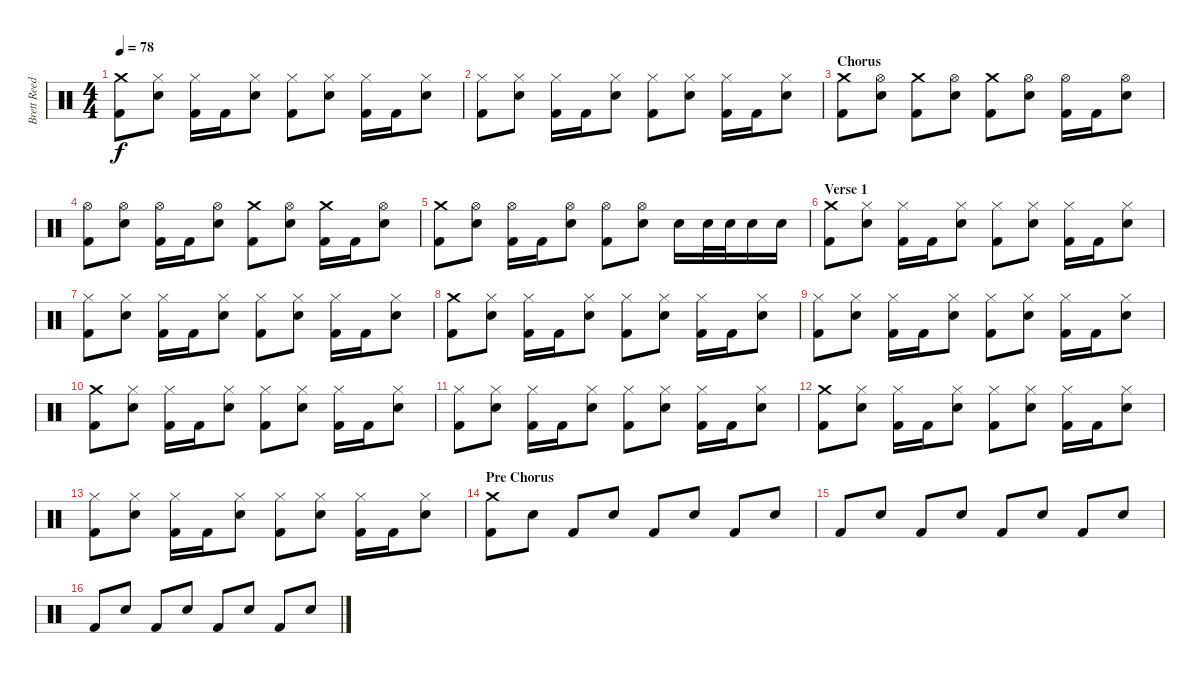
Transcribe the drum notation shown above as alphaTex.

\track ("Brett Reed" "Brett Reed") {instrument percussion}
\staff {score}
\articulation defaults
\ts (4 4)
\tempo 78
\clef neutral
\ks c
("Crash medium (hit)" "Kick (hit) 2").8{dy f} ("Hi-Hat (closed)" "Electric Snare (hit)").8 ("Hi-Hat (closed)" "Kick (hit) 2").16 "Kick (hit) 2".16 ("Hi-Hat (closed)" "Electric Snare (hit)").8 ("Hi-Hat (closed)" "Kick (hit) 2").8 ("Hi-Hat (closed)" "Electric Snare (hit)").8 ("Hi-Hat (closed)" "Kick (hit) 2").16 "Kick (hit) 2".16 ("Hi-Hat (closed)" "Electric Snare (hit)").8 |
("Hi-Hat (closed)" "Kick (hit) 2").8 ("Hi-Hat (closed)" "Electric Snare (hit)").8 ("Hi-Hat (closed)" "Kick (hit) 2").16 "Kick (hit) 2".16 ("Hi-Hat (closed)" "Electric Snare (hit)").8 ("Hi-Hat (closed)" "Kick (hit) 2").8 ("Hi-Hat (closed)" "Electric Snare (hit)").8 ("Hi-Hat (closed)" "Kick (hit) 2").16 "Kick (hit) 2".16 ("Hi-Hat (closed)" "Electric Snare (hit)").8 |
\section ("" "Chorus")
("Crash medium (hit)" "Kick (hit) 2").8 ("Hi-Hat (open)" "Electric Snare (hit)").8 ("Crash medium (hit)" "Kick (hit) 2").8 ("Hi-Hat (open)" "Electric Snare (hit)").8 ("Crash medium (hit)" "Kick (hit) 2").8 ("Hi-Hat (open)" "Electric Snare (hit)").8 ("Hi-Hat (open)" "Kick (hit) 2").16 "Kick (hit) 2".16 ("Hi-Hat (open)" "Electric Snare (hit)").8 |
("Hi-Hat (open)" "Kick (hit) 2").8 ("Hi-Hat (open)" "Electric Snare (hit)").8 ("Hi-Hat (open)" "Kick (hit) 2").16 "Kick (hit) 2".16 ("Hi-Hat (open)" "Electric Snare (hit)").8 ("Crash medium (hit)" "Kick (hit) 2").8 ("Hi-Hat (open)" "Electric Snare (hit)").8 ("Crash medium (hit)" "Kick (hit) 2").16 "Kick (hit) 2".16 ("Hi-Hat (open)" "Electric Snare (hit)").8 |
("Crash medium (hit)" "Kick (hit) 2").8 ("Hi-Hat (open)" "Electric Snare (hit)").8 ("Hi-Hat (open)" "Kick (hit) 2").16 "Kick (hit) 2".16 ("Hi-Hat (open)" "Electric Snare (hit)").8 ("Hi-Hat (open)" "Kick (hit) 2").8 ("Hi-Hat (open)" "Electric Snare (hit)").8 "Electric Snare (hit)".16 "Electric Snare (hit)".32 "Electric Snare (hit)".32 "Electric Snare (hit)".16 "Electric Snare (hit)".16 |
\section ("" "Verse 1")
("Crash medium (hit)" "Kick (hit) 2").8 ("Hi-Hat (closed)" "Electric Snare (hit)").8 ("Hi-Hat (closed)" "Kick (hit) 2").16 "Kick (hit) 2".16 ("Hi-Hat (closed)" "Electric Snare (hit)").8 ("Hi-Hat (closed)" "Kick (hit) 2").8 ("Hi-Hat (closed)" "Electric Snare (hit)").8 ("Hi-Hat (closed)" "Kick (hit) 2").16 "Kick (hit) 2".16 ("Hi-Hat (closed)" "Electric Snare (hit)").8 |
("Hi-Hat (closed)" "Kick (hit) 2").8 ("Hi-Hat (closed)" "Electric Snare (hit)").8 ("Hi-Hat (closed)" "Kick (hit) 2").16 "Kick (hit) 2".16 ("Hi-Hat (closed)" "Electric Snare (hit)").8 ("Hi-Hat (closed)" "Kick (hit) 2").8 ("Hi-Hat (closed)" "Electric Snare (hit)").8 ("Hi-Hat (closed)" "Kick (hit) 2").16 "Kick (hit) 2".16 ("Hi-Hat (closed)" "Electric Snare (hit)").8 |
("Crash medium (hit)" "Kick (hit) 2").8 ("Hi-Hat (closed)" "Electric Snare (hit)").8 ("Hi-Hat (closed)" "Kick (hit) 2").16 "Kick (hit) 2".16 ("Hi-Hat (closed)" "Electric Snare (hit)").8 ("Hi-Hat (closed)" "Kick (hit) 2").8 ("Hi-Hat (closed)" "Electric Snare (hit)").8 ("Hi-Hat (closed)" "Kick (hit) 2").16 "Kick (hit) 2".16 ("Hi-Hat (closed)" "Electric Snare (hit)").8 |
("Hi-Hat (closed)" "Kick (hit) 2").8 ("Hi-Hat (closed)" "Electric Snare (hit)").8 ("Hi-Hat (closed)" "Kick (hit) 2").16 "Kick (hit) 2".16 ("Hi-Hat (closed)" "Electric Snare (hit)").8 ("Hi-Hat (closed)" "Kick (hit) 2").8 ("Hi-Hat (closed)" "Electric Snare (hit)").8 ("Hi-Hat (closed)" "Kick (hit) 2").16 "Kick (hit) 2".16 ("Hi-Hat (closed)" "Electric Snare (hit)").8 |
("Crash medium (hit)" "Kick (hit) 2").8 ("Hi-Hat (closed)" "Electric Snare (hit)").8 ("Hi-Hat (closed)" "Kick (hit) 2").16 "Kick (hit) 2".16 ("Hi-Hat (closed)" "Electric Snare (hit)").8 ("Hi-Hat (closed)" "Kick (hit) 2").8 ("Hi-Hat (closed)" "Electric Snare (hit)").8 ("Hi-Hat (closed)" "Kick (hit) 2").16 "Kick (hit) 2".16 ("Hi-Hat (closed)" "Electric Snare (hit)").8 |
("Hi-Hat (closed)" "Kick (hit) 2").8 ("Hi-Hat (closed)" "Electric Snare (hit)").8 ("Hi-Hat (closed)" "Kick (hit) 2").16 "Kick (hit) 2".16 ("Hi-Hat (closed)" "Electric Snare (hit)").8 ("Hi-Hat (closed)" "Kick (hit) 2").8 ("Hi-Hat (closed)" "Electric Snare (hit)").8 ("Hi-Hat (closed)" "Kick (hit) 2").16 "Kick (hit) 2".16 ("Hi-Hat (closed)" "Electric Snare (hit)").8 |
("Crash medium (hit)" "Kick (hit) 2").8 ("Hi-Hat (closed)" "Electric Snare (hit)").8 ("Hi-Hat (closed)" "Kick (hit) 2").16 "Kick (hit) 2".16 ("Hi-Hat (closed)" "Electric Snare (hit)").8 ("Hi-Hat (closed)" "Kick (hit) 2").8 ("Hi-Hat (closed)" "Electric Snare (hit)").8 ("Hi-Hat (closed)" "Kick (hit) 2").16 "Kick (hit) 2".16 ("Hi-Hat (closed)" "Electric Snare (hit)").8 |
("Hi-Hat (closed)" "Kick (hit) 2").8 ("Hi-Hat (closed)" "Electric Snare (hit)").8 ("Hi-Hat (closed)" "Kick (hit) 2").16 "Kick (hit) 2".16 ("Hi-Hat (closed)" "Electric Snare (hit)").8 ("Hi-Hat (closed)" "Kick (hit) 2").8 ("Hi-Hat (closed)" "Electric Snare (hit)").8 ("Hi-Hat (closed)" "Kick (hit) 2").16 "Kick (hit) 2".16 ("Hi-Hat (closed)" "Electric Snare (hit)").8 |
\section ("" "Pre Chorus")
("Crash medium (hit)" "Kick (hit) 2").8 "Electric Snare (hit)".8 "Kick (hit) 2".8 "Electric Snare (hit)".8 "Kick (hit) 2".8 "Electric Snare (hit)".8 "Kick (hit) 2".8 "Electric Snare (hit)".8 |
"Kick (hit) 2".8 "Electric Snare (hit)".8 "Kick (hit) 2".8 "Electric Snare (hit)".8 "Kick (hit) 2".8 "Electric Snare (hit)".8 "Kick (hit) 2".8 "Electric Snare (hit)".8 |
"Kick (hit) 2".8 "Electric Snare (hit)".8 "Kick (hit) 2".8 "Electric Snare (hit)".8 "Kick (hit) 2".8 "Electric Snare (hit)".8 "Kick (hit) 2".8 "Electric Snare (hit)".8
